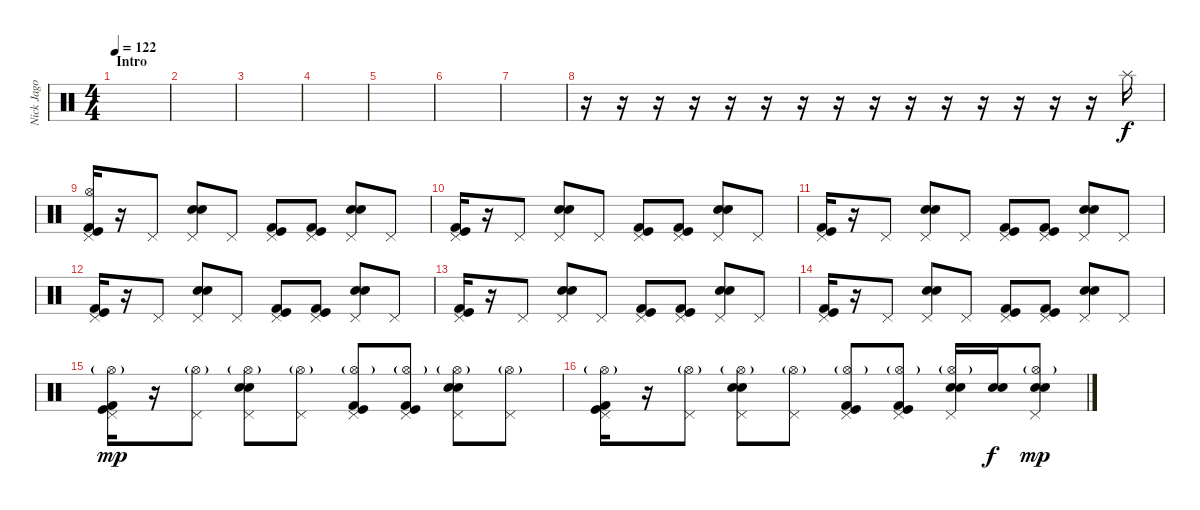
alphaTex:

\track ("Nick Jago - Drums" "Nick Jago ") {instrument percussion}
\staff {score}
\articulation defaults
\ts (4 4)
\section ("" "Intro")
\tempo 122
\clef neutral
\ks c
|
|
|
|
|
|
|
r.16 r.16 r.16 r.16 r.16 r.16 r.16 r.16 r.16 r.16 r.16 r.16 r.16 r.16 r.16 "Splash (hit)".16 |
("Pedal Hi-Hat (hit)" "Hi-Hat (open)" "Kick (hit)" "Kick (hit) 2").16 r.16 "Pedal Hi-Hat (hit)".8 ("Pedal Hi-Hat (hit)" "Snare (hit) 2" "Electric Snare (hit)").8 "Pedal Hi-Hat (hit)".8 ("Pedal Hi-Hat (hit)" "Kick (hit)" "Kick (hit) 2").8 ("Pedal Hi-Hat (hit)" "Kick (hit)" "Kick (hit) 2").8 ("Pedal Hi-Hat (hit)" "Snare (hit) 2" "Electric Snare (hit)").8 "Pedal Hi-Hat (hit)".8 |
("Pedal Hi-Hat (hit)" "Kick (hit)" "Kick (hit) 2").16 r.16 "Pedal Hi-Hat (hit)".8 ("Pedal Hi-Hat (hit)" "Snare (hit) 2" "Electric Snare (hit)").8 "Pedal Hi-Hat (hit)".8 ("Pedal Hi-Hat (hit)" "Kick (hit)" "Kick (hit) 2").8 ("Pedal Hi-Hat (hit)" "Kick (hit)" "Kick (hit) 2").8 ("Pedal Hi-Hat (hit)" "Snare (hit) 2" "Electric Snare (hit)").8 "Pedal Hi-Hat (hit)".8 |
("Pedal Hi-Hat (hit)" "Kick (hit)" "Kick (hit) 2").16 r.16 "Pedal Hi-Hat (hit)".8 ("Pedal Hi-Hat (hit)" "Snare (hit) 2" "Electric Snare (hit)").8 "Pedal Hi-Hat (hit)".8 ("Pedal Hi-Hat (hit)" "Kick (hit)" "Kick (hit) 2").8 ("Pedal Hi-Hat (hit)" "Kick (hit)" "Kick (hit) 2").8 ("Pedal Hi-Hat (hit)" "Snare (hit) 2" "Electric Snare (hit)").8 "Pedal Hi-Hat (hit)".8 |
("Pedal Hi-Hat (hit)" "Kick (hit)" "Kick (hit) 2").16 r.16 "Pedal Hi-Hat (hit)".8 ("Pedal Hi-Hat (hit)" "Snare (hit) 2" "Electric Snare (hit)").8 "Pedal Hi-Hat (hit)".8 ("Pedal Hi-Hat (hit)" "Kick (hit)" "Kick (hit) 2").8 ("Pedal Hi-Hat (hit)" "Kick (hit)" "Kick (hit) 2").8 ("Pedal Hi-Hat (hit)" "Snare (hit) 2" "Electric Snare (hit)").8 "Pedal Hi-Hat (hit)".8 |
("Pedal Hi-Hat (hit)" "Kick (hit)" "Kick (hit) 2").16 r.16 "Pedal Hi-Hat (hit)".8 ("Pedal Hi-Hat (hit)" "Snare (hit) 2" "Electric Snare (hit)").8 "Pedal Hi-Hat (hit)".8 ("Pedal Hi-Hat (hit)" "Kick (hit)" "Kick (hit) 2").8 ("Pedal Hi-Hat (hit)" "Kick (hit)" "Kick (hit) 2").8 ("Pedal Hi-Hat (hit)" "Snare (hit) 2" "Electric Snare (hit)").8 "Pedal Hi-Hat (hit)".8 |
("Pedal Hi-Hat (hit)" "Kick (hit)" "Kick (hit) 2").16 r.16 "Pedal Hi-Hat (hit)".8 ("Pedal Hi-Hat (hit)" "Snare (hit) 2" "Electric Snare (hit)").8 "Pedal Hi-Hat (hit)".8 ("Pedal Hi-Hat (hit)" "Kick (hit)" "Kick (hit) 2").8 ("Pedal Hi-Hat (hit)" "Kick (hit)" "Kick (hit) 2").8 ("Pedal Hi-Hat (hit)" "Snare (hit) 2" "Electric Snare (hit)").8 "Pedal Hi-Hat (hit)".8 |
("Pedal Hi-Hat (hit)" "Hi-Hat (open)"{g} "Kick (hit)" "Kick (hit) 2").16{dy mp} r.16 ("Pedal Hi-Hat (hit)" "Hi-Hat (open)"{g}).8 ("Pedal Hi-Hat (hit)" "Hi-Hat (open)"{g} "Snare (hit) 2" "Electric Snare (hit)").8 ("Pedal Hi-Hat (hit)" "Hi-Hat (open)"{g}).8 ("Pedal Hi-Hat (hit)" "Hi-Hat (open)"{g} "Kick (hit)" "Kick (hit) 2").8 ("Pedal Hi-Hat (hit)" "Hi-Hat (open)"{g} "Kick (hit)" "Kick (hit) 2").8 ("Pedal Hi-Hat (hit)" "Hi-Hat (open)"{g} "Snare (hit) 2" "Electric Snare (hit)").8 ("Pedal Hi-Hat (hit)" "Hi-Hat (open)"{g}).8 |
("Pedal Hi-Hat (hit)" "Hi-Hat (open)"{g} "Kick (hit)" "Kick (hit) 2").16 r.16 ("Pedal Hi-Hat (hit)" "Hi-Hat (open)"{g}).8 ("Pedal Hi-Hat (hit)" "Hi-Hat (open)"{g} "Snare (hit) 2" "Electric Snare (hit)").8 ("Pedal Hi-Hat (hit)" "Hi-Hat (open)"{g}).8 ("Pedal Hi-Hat (hit)" "Hi-Hat (open)"{g} "Kick (hit)" "Kick (hit) 2").8 ("Pedal Hi-Hat (hit)" "Hi-Hat (open)"{g} "Kick (hit)" "Kick (hit) 2").8 ("Pedal Hi-Hat (hit)" "Hi-Hat (open)"{g} "Snare (hit) 2" "Electric Snare (hit)").16 ("Snare (hit) 2" "Electric Snare (hit)").16{dy f} ("Pedal Hi-Hat (hit)" "Hi-Hat (open)"{g} "Snare (hit) 2" "Electric Snare (hit)").8{dy mp}
